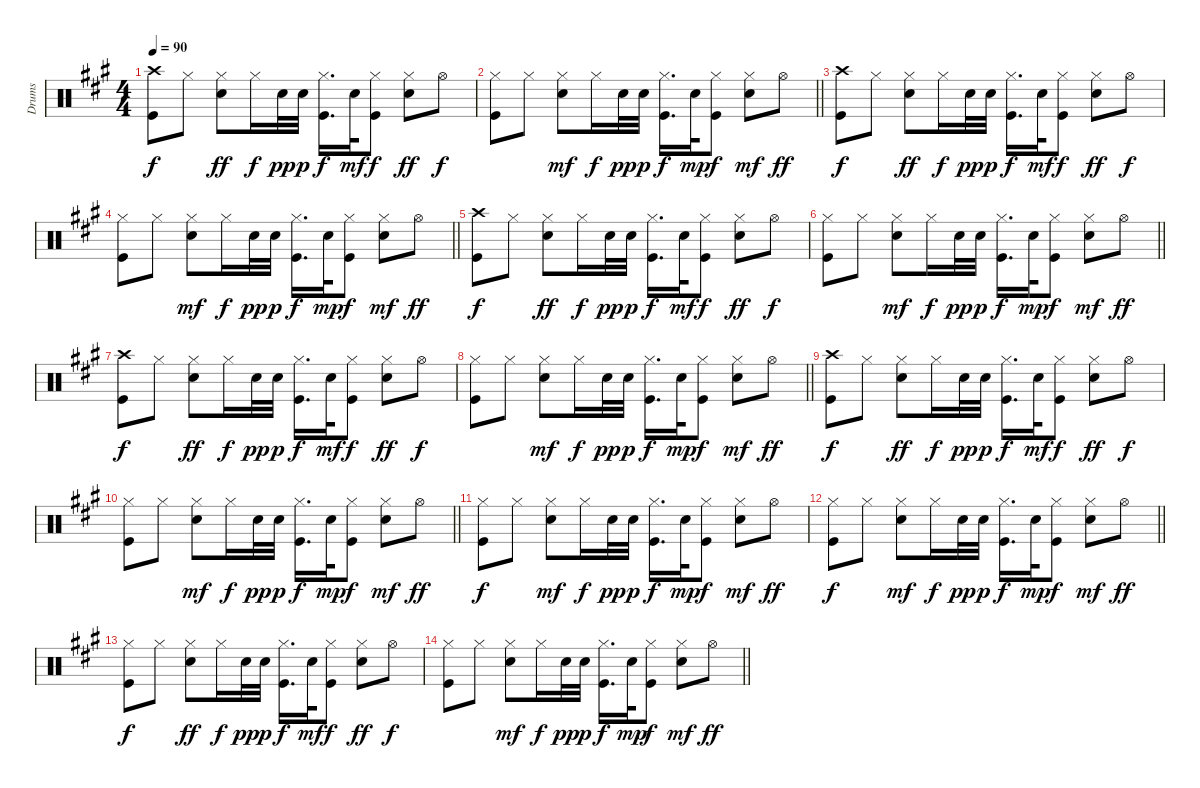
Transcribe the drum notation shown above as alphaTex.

\track ("Drums" "Drums") {instrument percussion}
\staff {score}
\articulation defaults
\ts (4 4)
\tempo 90
\clef neutral
\ks a
("Crash high (hit)" "Kick (hit)").8{dy f} "Hi-Hat (closed)".8 ("Hi-Hat (closed)" "Snare (hit) 2").8{dy ff} "Hi-Hat (closed)".16{dy f} "Snare (hit) 2".32{dy pp} "Snare (hit) 2".32{dy p} ("Hi-Hat (closed)" "Kick (hit)").16{d dy f} "Snare (hit) 2".32{dy mf} ("Hi-Hat (closed)" "Kick (hit)").8{dy f} ("Hi-Hat (closed)" "Snare (hit) 2").8{dy ff} "Hi-Hat (open)".8{dy f} |
\barLineRight lightlight
("Hi-Hat (closed)" "Kick (hit)").8 "Hi-Hat (closed)".8 ("Hi-Hat (closed)" "Snare (hit) 2").8{dy mf} "Hi-Hat (closed)".16{dy f} "Snare (hit) 2".32{dy pp} "Snare (hit) 2".32{dy p} ("Hi-Hat (closed)" "Kick (hit)").16{d dy f} "Snare (hit) 2".32{dy mp} ("Hi-Hat (closed)" "Kick (hit)").8{dy f} ("Hi-Hat (closed)" "Snare (hit) 2").8{dy mf} "Hi-Hat (open)".8{dy ff} |
("Crash high (hit)" "Kick (hit)").8{dy f} "Hi-Hat (closed)".8 ("Hi-Hat (closed)" "Snare (hit) 2").8{dy ff} "Hi-Hat (closed)".16{dy f} "Snare (hit) 2".32{dy pp} "Snare (hit) 2".32{dy p} ("Hi-Hat (closed)" "Kick (hit)").16{d dy f} "Snare (hit) 2".32{dy mf} ("Hi-Hat (closed)" "Kick (hit)").8{dy f} ("Hi-Hat (closed)" "Snare (hit) 2").8{dy ff} "Hi-Hat (open)".8{dy f} |
\barLineRight lightlight
("Hi-Hat (closed)" "Kick (hit)").8 "Hi-Hat (closed)".8 ("Hi-Hat (closed)" "Snare (hit) 2").8{dy mf} "Hi-Hat (closed)".16{dy f} "Snare (hit) 2".32{dy pp} "Snare (hit) 2".32{dy p} ("Hi-Hat (closed)" "Kick (hit)").16{d dy f} "Snare (hit) 2".32{dy mp} ("Hi-Hat (closed)" "Kick (hit)").8{dy f} ("Hi-Hat (closed)" "Snare (hit) 2").8{dy mf} "Hi-Hat (open)".8{dy ff} |
("Crash high (hit)" "Kick (hit)").8{dy f} "Hi-Hat (closed)".8 ("Hi-Hat (closed)" "Snare (hit) 2").8{dy ff} "Hi-Hat (closed)".16{dy f} "Snare (hit) 2".32{dy pp} "Snare (hit) 2".32{dy p} ("Hi-Hat (closed)" "Kick (hit)").16{d dy f} "Snare (hit) 2".32{dy mf} ("Hi-Hat (closed)" "Kick (hit)").8{dy f} ("Hi-Hat (closed)" "Snare (hit) 2").8{dy ff} "Hi-Hat (open)".8{dy f} |
\barLineRight lightlight
("Hi-Hat (closed)" "Kick (hit)").8 "Hi-Hat (closed)".8 ("Hi-Hat (closed)" "Snare (hit) 2").8{dy mf} "Hi-Hat (closed)".16{dy f} "Snare (hit) 2".32{dy pp} "Snare (hit) 2".32{dy p} ("Hi-Hat (closed)" "Kick (hit)").16{d dy f} "Snare (hit) 2".32{dy mp} ("Hi-Hat (closed)" "Kick (hit)").8{dy f} ("Hi-Hat (closed)" "Snare (hit) 2").8{dy mf} "Hi-Hat (open)".8{dy ff} |
("Crash high (hit)" "Kick (hit)").8{dy f} "Hi-Hat (closed)".8 ("Hi-Hat (closed)" "Snare (hit) 2").8{dy ff} "Hi-Hat (closed)".16{dy f} "Snare (hit) 2".32{dy pp} "Snare (hit) 2".32{dy p} ("Hi-Hat (closed)" "Kick (hit)").16{d dy f} "Snare (hit) 2".32{dy mf} ("Hi-Hat (closed)" "Kick (hit)").8{dy f} ("Hi-Hat (closed)" "Snare (hit) 2").8{dy ff} "Hi-Hat (open)".8{dy f} |
\barLineRight lightlight
("Hi-Hat (closed)" "Kick (hit)").8 "Hi-Hat (closed)".8 ("Hi-Hat (closed)" "Snare (hit) 2").8{dy mf} "Hi-Hat (closed)".16{dy f} "Snare (hit) 2".32{dy pp} "Snare (hit) 2".32{dy p} ("Hi-Hat (closed)" "Kick (hit)").16{d dy f} "Snare (hit) 2".32{dy mp} ("Hi-Hat (closed)" "Kick (hit)").8{dy f} ("Hi-Hat (closed)" "Snare (hit) 2").8{dy mf} "Hi-Hat (open)".8{dy ff} |
("Crash high (hit)" "Kick (hit)").8{dy f} "Hi-Hat (closed)".8 ("Hi-Hat (closed)" "Snare (hit) 2").8{dy ff} "Hi-Hat (closed)".16{dy f} "Snare (hit) 2".32{dy pp} "Snare (hit) 2".32{dy p} ("Hi-Hat (closed)" "Kick (hit)").16{d dy f} "Snare (hit) 2".32{dy mf} ("Hi-Hat (closed)" "Kick (hit)").8{dy f} ("Hi-Hat (closed)" "Snare (hit) 2").8{dy ff} "Hi-Hat (open)".8{dy f} |
\barLineRight lightlight
("Hi-Hat (closed)" "Kick (hit)").8 "Hi-Hat (closed)".8 ("Hi-Hat (closed)" "Snare (hit) 2").8{dy mf} "Hi-Hat (closed)".16{dy f} "Snare (hit) 2".32{dy pp} "Snare (hit) 2".32{dy p} ("Hi-Hat (closed)" "Kick (hit)").16{d dy f} "Snare (hit) 2".32{dy mp} ("Hi-Hat (closed)" "Kick (hit)").8{dy f} ("Hi-Hat (closed)" "Snare (hit) 2").8{dy mf} "Hi-Hat (open)".8{dy ff} |
("Hi-Hat (closed)" "Kick (hit)").8{dy f} "Hi-Hat (closed)".8 ("Hi-Hat (closed)" "Snare (hit) 2").8{dy mf} "Hi-Hat (closed)".16{dy f} "Snare (hit) 2".32{dy pp} "Snare (hit) 2".32{dy p} ("Hi-Hat (closed)" "Kick (hit)").16{d dy f} "Snare (hit) 2".32{dy mp} ("Hi-Hat (closed)" "Kick (hit)").8{dy f} ("Hi-Hat (closed)" "Snare (hit) 2").8{dy mf} "Hi-Hat (open)".8{dy ff} |
\barLineRight lightlight
("Hi-Hat (closed)" "Kick (hit)").8{dy f} "Hi-Hat (closed)".8 ("Hi-Hat (closed)" "Snare (hit) 2").8{dy mf} "Hi-Hat (closed)".16{dy f} "Snare (hit) 2".32{dy pp} "Snare (hit) 2".32{dy p} ("Hi-Hat (closed)" "Kick (hit)").16{d dy f} "Snare (hit) 2".32{dy mp} ("Hi-Hat (closed)" "Kick (hit)").8{dy f} ("Hi-Hat (closed)" "Snare (hit) 2").8{dy mf} "Hi-Hat (open)".8{dy ff} |
("Hi-Hat (closed)" "Kick (hit)").8{dy f} "Hi-Hat (closed)".8 ("Hi-Hat (closed)" "Snare (hit) 2").8{dy ff} "Hi-Hat (closed)".16{dy f} "Snare (hit) 2".32{dy pp} "Snare (hit) 2".32{dy p} ("Hi-Hat (closed)" "Kick (hit)").16{d dy f} "Snare (hit) 2".32{dy mf} ("Hi-Hat (closed)" "Kick (hit)").8{dy f} ("Hi-Hat (closed)" "Snare (hit) 2").8{dy ff} "Hi-Hat (open)".8{dy f} |
\barLineRight lightlight
("Hi-Hat (closed)" "Kick (hit)").8 "Hi-Hat (closed)".8 ("Hi-Hat (closed)" "Snare (hit) 2").8{dy mf} "Hi-Hat (closed)".16{dy f} "Snare (hit) 2".32{dy pp} "Snare (hit) 2".32{dy p} ("Hi-Hat (closed)" "Kick (hit)").16{d dy f} "Snare (hit) 2".32{dy mp} ("Hi-Hat (closed)" "Kick (hit)").8{dy f} ("Hi-Hat (closed)" "Snare (hit) 2").8{dy mf} "Hi-Hat (open)".8{dy ff}
